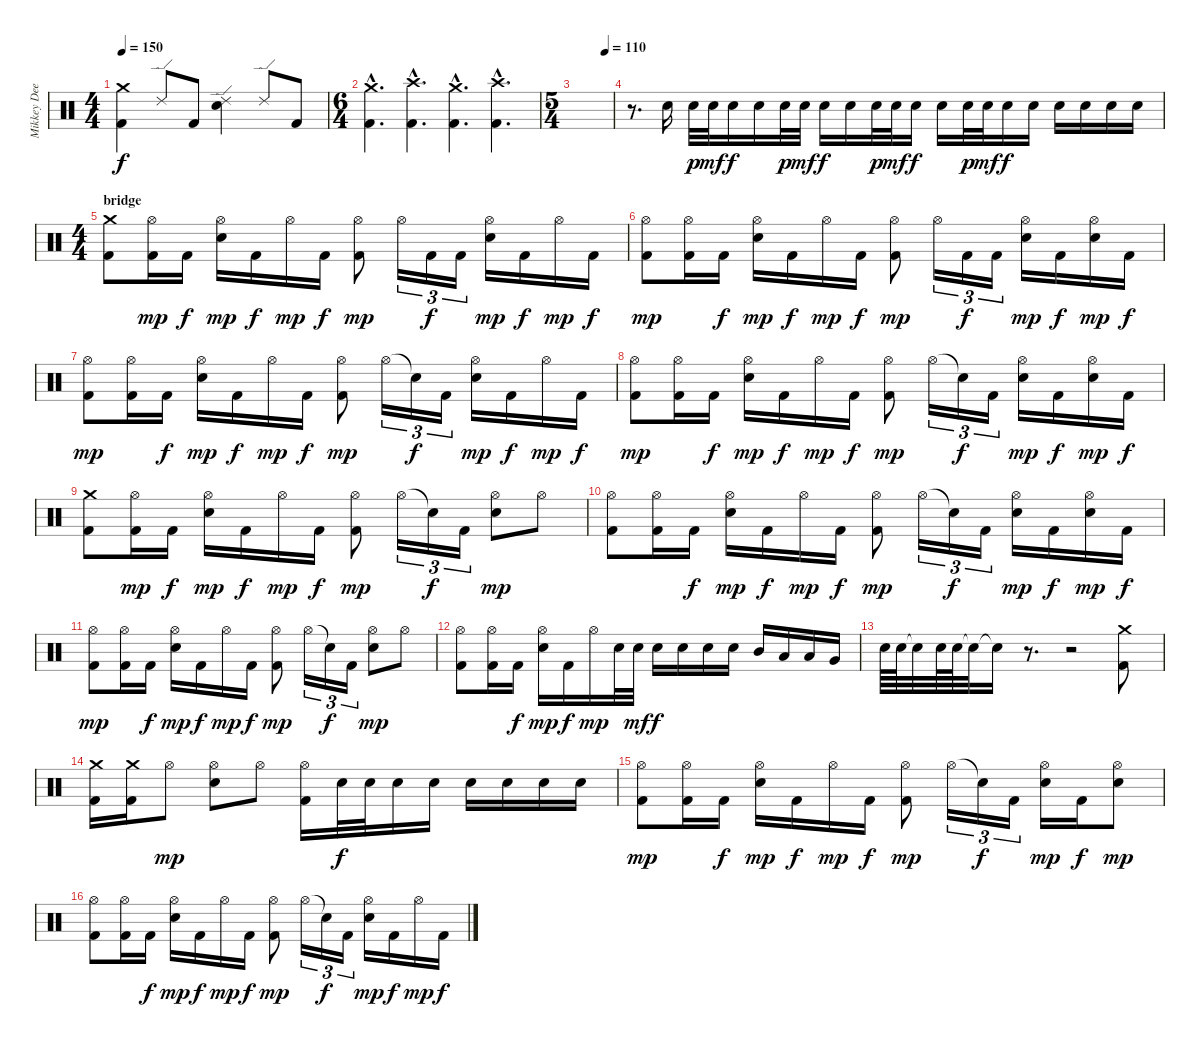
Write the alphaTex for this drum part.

\track ("Mikkey Dee" "Mikkey Dee") {instrument percussion}
\staff {score}
\articulation defaults
\ts (4 4)
\tempo 150
\clef neutral
\ks c
("Kick (hit) 2" "Crash medium (hit)").4{dy f} "Ride (edge) 2".8 "Kick (hit) 2".8 ("Ride (edge) 2" "Snare (hit) 2").4 "Ride (edge) 2".8 "Kick (hit) 2".8 |
\ts (6 4)
("Kick (hit) 2"{hac} "Crash medium (hit)"{hac}).4{d} ("Kick (hit) 2"{hac} "Crash high (hit)"{hac}).4{d} ("Kick (hit) 2"{hac} "Crash medium (hit)"{hac}).4{d} ("Kick (hit) 2"{hac} "Crash high (hit)"{hac}).4{d} |
\ts (5 4)
\tempo (110 0.8)
|
r.8{d} "Snare (hit) 2".16 "Snare (hit) 2".32{dy p} "Snare (hit) 2".32{dy mf} "Snare (hit) 2".16{dy f} "Snare (hit) 2".16 "Snare (hit) 2".32{dy p} "Snare (hit) 2".32{dy mf} "Snare (hit) 2".16{dy f} "Snare (hit) 2".16 "Snare (hit) 2".32{dy p} "Snare (hit) 2".32{dy mf} "Snare (hit) 2".16{dy f} "Snare (hit) 2".16 "Snare (hit) 2".32{dy p} "Snare (hit) 2".32{dy mf} "Snare (hit) 2".16{dy f} "Snare (hit) 2".16 "Snare (hit) 2".16 "Snare (hit) 2".16 "Snare (hit) 2".16 "Snare (hit) 2".16 |
\ts (4 4)
\section ("" "bridge")
("Kick (hit) 2" "Crash medium (hit)").8 ("Kick (hit) 2" "Hi-Hat (open)").16{dy mp} "Kick (hit) 2".16{dy f} ("Hi-Hat (open)" "Snare (hit) 2").16{dy mp} "Kick (hit) 2".16{dy f} "Hi-Hat (open)".16{dy mp} "Kick (hit) 2".16{dy f} ("Kick (hit) 2" "Hi-Hat (open)").8{dy mp} "Hi-Hat (open)".16{tu (3 2)} "Kick (hit) 2".16{tu (3 2) dy f} "Kick (hit) 2".16{tu (3 2)} ("Hi-Hat (open)" "Snare (hit) 2").16{dy mp} "Kick (hit) 2".16{dy f} "Hi-Hat (open)".16{dy mp} "Kick (hit) 2".16{dy f} |
("Kick (hit) 2" "Hi-Hat (open)").8{dy mp} ("Kick (hit) 2" "Hi-Hat (open)").16 "Kick (hit) 2".16{dy f} ("Hi-Hat (open)" "Snare (hit) 2").16{dy mp} "Kick (hit) 2".16{dy f} "Hi-Hat (open)".16{dy mp} "Kick (hit) 2".16{dy f} ("Kick (hit) 2" "Hi-Hat (open)").8{dy mp} "Hi-Hat (open)".16{tu (3 2)} "Kick (hit) 2".16{tu (3 2) dy f} "Kick (hit) 2".16{tu (3 2)} ("Hi-Hat (open)" "Snare (hit) 2").16{dy mp} "Kick (hit) 2".16{dy f} ("Hi-Hat (open)" "Snare (hit) 2").16{dy mp} "Kick (hit) 2".16{dy f} |
("Kick (hit) 2" "Hi-Hat (open)").8{dy mp} ("Kick (hit) 2" "Hi-Hat (open)").16 "Kick (hit) 2".16{dy f} ("Hi-Hat (open)" "Snare (hit) 2").16{dy mp} "Kick (hit) 2".16{dy f} "Hi-Hat (open)".16{dy mp} "Kick (hit) 2".16{dy f} ("Kick (hit) 2" "Hi-Hat (open)").8{dy mp} "Hi-Hat (open)".16{tu (3 2)} "Snare (hit)"{t}.16{tu (3 2) dy f} "Kick (hit) 2".16{tu (3 2)} ("Hi-Hat (open)" "Snare (hit) 2").16{dy mp} "Kick (hit) 2".16{dy f} "Hi-Hat (open)".16{dy mp} "Kick (hit) 2".16{dy f} |
("Kick (hit) 2" "Hi-Hat (open)").8{dy mp} ("Kick (hit) 2" "Hi-Hat (open)").16 "Kick (hit) 2".16{dy f} ("Hi-Hat (open)" "Snare (hit) 2").16{dy mp} "Kick (hit) 2".16{dy f} "Hi-Hat (open)".16{dy mp} "Kick (hit) 2".16{dy f} ("Kick (hit) 2" "Hi-Hat (open)").8{dy mp} "Hi-Hat (open)".16{tu (3 2)} "Snare (hit)"{t}.16{tu (3 2) dy f} "Kick (hit) 2".16{tu (3 2)} ("Hi-Hat (open)" "Snare (hit) 2").16{dy mp} "Kick (hit) 2".16{dy f} ("Hi-Hat (open)" "Snare (hit) 2").16{dy mp} "Kick (hit) 2".16{dy f} |
("Kick (hit) 2" "Crash medium (hit)").8 ("Kick (hit) 2" "Hi-Hat (open)").16{dy mp} "Kick (hit) 2".16{dy f} ("Hi-Hat (open)" "Snare (hit) 2").16{dy mp} "Kick (hit) 2".16{dy f} "Hi-Hat (open)".16{dy mp} "Kick (hit) 2".16{dy f} ("Kick (hit) 2" "Hi-Hat (open)").8{dy mp} "Hi-Hat (open)".16{tu (3 2)} "Snare (hit)"{t}.16{tu (3 2) dy f} "Kick (hit) 2".16{tu (3 2)} ("Hi-Hat (open)" "Snare (hit) 2").8{dy mp} "Hi-Hat (open)".8 |
("Kick (hit) 2" "Hi-Hat (open)").8 ("Kick (hit) 2" "Hi-Hat (open)").16 "Kick (hit) 2".16{dy f} ("Hi-Hat (open)" "Snare (hit) 2").16{dy mp} "Kick (hit) 2".16{dy f} "Hi-Hat (open)".16{dy mp} "Kick (hit) 2".16{dy f} ("Kick (hit) 2" "Hi-Hat (open)").8{dy mp} "Hi-Hat (open)".16{tu (3 2)} "Snare (hit)"{t}.16{tu (3 2) dy f} "Kick (hit) 2".16{tu (3 2)} ("Hi-Hat (open)" "Snare (hit) 2").16{dy mp} "Kick (hit) 2".16{dy f} ("Hi-Hat (open)" "Snare (hit) 2").16{dy mp} "Kick (hit) 2".16{dy f} |
("Kick (hit) 2" "Hi-Hat (open)").8{dy mp} ("Kick (hit) 2" "Hi-Hat (open)").16 "Kick (hit) 2".16{dy f} ("Hi-Hat (open)" "Snare (hit) 2").16{dy mp} "Kick (hit) 2".16{dy f} "Hi-Hat (open)".16{dy mp} "Kick (hit) 2".16{dy f} ("Kick (hit) 2" "Hi-Hat (open)").8{dy mp} "Hi-Hat (open)".16{tu (3 2)} "Snare (hit)"{t}.16{tu (3 2) dy f} "Kick (hit) 2".16{tu (3 2)} ("Hi-Hat (open)" "Snare (hit) 2").8{dy mp} "Hi-Hat (open)".8 |
("Kick (hit) 2" "Hi-Hat (open)").8 ("Kick (hit) 2" "Hi-Hat (open)").16 "Kick (hit) 2".16{dy f} ("Hi-Hat (open)" "Snare (hit) 2").16{dy mp} "Kick (hit) 2".16{dy f} "Hi-Hat (open)".16{dy mp} "Snare (hit) 2".32 "Snare (hit) 2".32{dy mf} "Snare (hit) 2".16{dy f} "Snare (hit) 2".16 "Snare (hit) 2".16 "Snare (hit) 2".16 "Mid Tom (hit)".16 "Low Tom (hit)".16 "Low Tom (hit)".16 "Very Low Tom (hit)".16 |
"Snare (hit) 2".64 "Snare (hit) 2".64 "Snare (hit)"{t}.32 "Snare (hit) 2".64 "Snare (hit) 2".64 "Snare (hit)"{t}.32 "Snare (hit)"{t}.16 r.8{d} r.2 ("Kick (hit) 2" "Crash medium (hit)").8 |
("Kick (hit) 2" "Crash medium (hit)").16 ("Kick (hit) 2" "Crash medium (hit)").16 "Hi-Hat (open)".8{dy mp} ("Hi-Hat (open)" "Snare (hit) 2").8 "Hi-Hat (open)".8 ("Kick (hit) 2" "Hi-Hat (open)").16 "Snare (hit) 2".32{dy f} "Snare (hit) 2".32 "Snare (hit) 2".16 "Snare (hit) 2".16 "Snare (hit) 2".16 "Snare (hit) 2".16 "Snare (hit) 2".16 "Snare (hit) 2".16 |
("Kick (hit) 2" "Hi-Hat (open)").8{dy mp} ("Kick (hit) 2" "Hi-Hat (open)").16 "Kick (hit) 2".16{dy f} ("Hi-Hat (open)" "Snare (hit) 2").16{dy mp} "Kick (hit) 2".16{dy f} "Hi-Hat (open)".16{dy mp} "Kick (hit) 2".16{dy f} ("Kick (hit) 2" "Hi-Hat (open)").8{dy mp} "Hi-Hat (open)".16{tu (3 2)} "Snare (hit)"{t}.16{tu (3 2) dy f} "Kick (hit) 2".16{tu (3 2)} ("Hi-Hat (open)" "Snare (hit) 2").16{dy mp} "Kick (hit) 2".16{dy f} ("Hi-Hat (open)" "Snare (hit) 2").8{dy mp} |
("Kick (hit) 2" "Hi-Hat (open)").8 ("Kick (hit) 2" "Hi-Hat (open)").16 "Kick (hit) 2".16{dy f} ("Hi-Hat (open)" "Snare (hit) 2").16{dy mp} "Kick (hit) 2".16{dy f} "Hi-Hat (open)".16{dy mp} "Kick (hit) 2".16{dy f} ("Kick (hit) 2" "Hi-Hat (open)").8{dy mp} "Hi-Hat (open)".16{tu (3 2)} "Snare (hit)"{t}.16{tu (3 2) dy f} "Kick (hit) 2".16{tu (3 2)} ("Hi-Hat (open)" "Snare (hit) 2").16{dy mp} "Kick (hit) 2".16{dy f} "Hi-Hat (open)".16{dy mp} "Kick (hit) 2".16{dy f}
